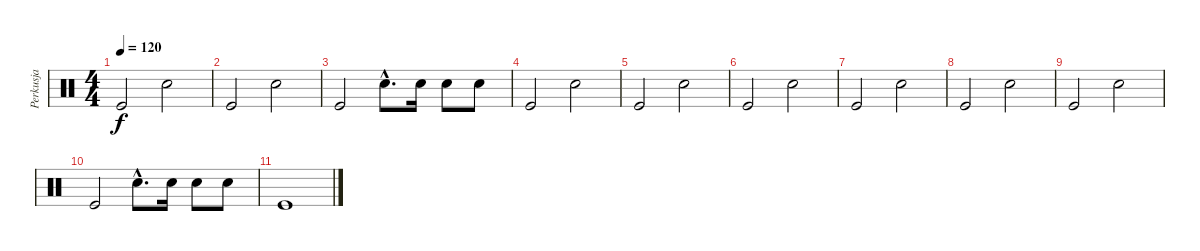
\track ("Perkusja" "Perkusja") {instrument percussion}
\staff {score}
\articulation defaults
\ts (4 4)
\tempo 120
\clef neutral
\ks c "Kick (hit)".2{dy f} "Electric Snare (hit)".2
|
"Kick (hit)".2 "Electric Snare (hit)".2 |
"Kick (hit)".2 "Electric Snare (hit)"{hac}.8{d} "Electric Snare (hit)".16 "Electric Snare (hit)".8 "Electric Snare (hit)".8 |
"Kick (hit)".2 "Electric Snare (hit)".2 |
"Kick (hit)".2 "Electric Snare (hit)".2 |
"Kick (hit)".2 "Electric Snare (hit)".2 |
"Kick (hit)".2 "Electric Snare (hit)".2 |
"Kick (hit)".2 "Electric Snare (hit)".2 |
"Kick (hit)".2 "Electric Snare (hit)".2 |
"Kick (hit)".2 "Electric Snare (hit)"{hac}.8{d} "Electric Snare (hit)".16 "Electric Snare (hit)".8 "Electric Snare (hit)".8 |
"Kick (hit)".1
